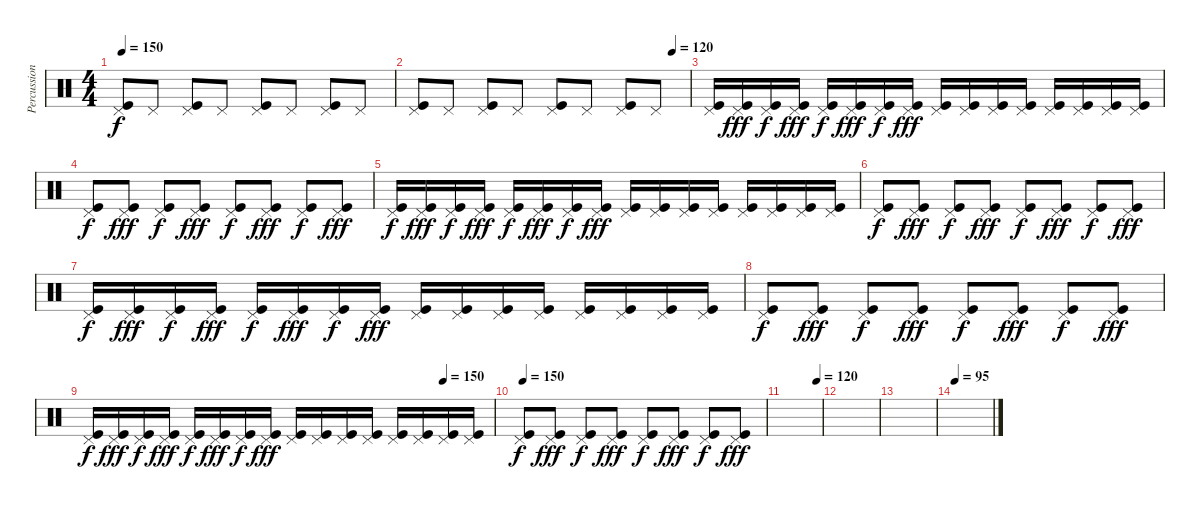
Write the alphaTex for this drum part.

\track ("Percussion" "Percussion") {instrument percussion}
\staff {score}
\articulation defaults
\ts (4 4)
\tempo 150
\clef neutral
\ks c
("Pedal Hi-Hat (hit)" "Kick (hit)").8{dy f} "Pedal Hi-Hat (hit)".8 ("Pedal Hi-Hat (hit)" "Kick (hit)").8 "Pedal Hi-Hat (hit)".8 ("Pedal Hi-Hat (hit)" "Kick (hit)").8 "Pedal Hi-Hat (hit)".8 ("Pedal Hi-Hat (hit)" "Kick (hit)").8 "Pedal Hi-Hat (hit)".8 |
\tempo (120 0.9375)
("Pedal Hi-Hat (hit)" "Kick (hit)").8 "Pedal Hi-Hat (hit)".8 ("Pedal Hi-Hat (hit)" "Kick (hit)").8 "Pedal Hi-Hat (hit)".8 ("Pedal Hi-Hat (hit)" "Kick (hit)").8 "Pedal Hi-Hat (hit)".8 ("Pedal Hi-Hat (hit)" "Kick (hit)").8 "Pedal Hi-Hat (hit)".8 |
("Pedal Hi-Hat (hit)" "Kick (hit)").16 ("Pedal Hi-Hat (hit)" "Kick (hit)").16{dy fff} ("Pedal Hi-Hat (hit)" "Kick (hit)").16{dy f} ("Pedal Hi-Hat (hit)" "Kick (hit)").16{dy fff} ("Pedal Hi-Hat (hit)" "Kick (hit)").16{dy f} ("Pedal Hi-Hat (hit)" "Kick (hit)").16{dy fff} ("Pedal Hi-Hat (hit)" "Kick (hit)").16{dy f} ("Pedal Hi-Hat (hit)" "Kick (hit)").16{dy fff} ("Pedal Hi-Hat (hit)" "Kick (hit)").16 ("Pedal Hi-Hat (hit)" "Kick (hit)").16 ("Pedal Hi-Hat (hit)" "Kick (hit)").16 ("Pedal Hi-Hat (hit)" "Kick (hit)").16 ("Pedal Hi-Hat (hit)" "Kick (hit)").16 ("Pedal Hi-Hat (hit)" "Kick (hit)").16 ("Pedal Hi-Hat (hit)" "Kick (hit)").16 ("Pedal Hi-Hat (hit)" "Kick (hit)").16 |
("Pedal Hi-Hat (hit)" "Kick (hit)").8{dy f} ("Pedal Hi-Hat (hit)" "Kick (hit)").8{dy fff} ("Pedal Hi-Hat (hit)" "Kick (hit)").8{dy f} ("Pedal Hi-Hat (hit)" "Kick (hit)").8{dy fff} ("Pedal Hi-Hat (hit)" "Kick (hit)").8{dy f} ("Pedal Hi-Hat (hit)" "Kick (hit)").8{dy fff} ("Pedal Hi-Hat (hit)" "Kick (hit)").8{dy f} ("Pedal Hi-Hat (hit)" "Kick (hit)").8{dy fff} |
("Pedal Hi-Hat (hit)" "Kick (hit)").16{dy f} ("Pedal Hi-Hat (hit)" "Kick (hit)").16{dy fff} ("Pedal Hi-Hat (hit)" "Kick (hit)").16{dy f} ("Pedal Hi-Hat (hit)" "Kick (hit)").16{dy fff} ("Pedal Hi-Hat (hit)" "Kick (hit)").16{dy f} ("Pedal Hi-Hat (hit)" "Kick (hit)").16{dy fff} ("Pedal Hi-Hat (hit)" "Kick (hit)").16{dy f} ("Pedal Hi-Hat (hit)" "Kick (hit)").16{dy fff} ("Pedal Hi-Hat (hit)" "Kick (hit)").16 ("Pedal Hi-Hat (hit)" "Kick (hit)").16 ("Pedal Hi-Hat (hit)" "Kick (hit)").16 ("Pedal Hi-Hat (hit)" "Kick (hit)").16 ("Pedal Hi-Hat (hit)" "Kick (hit)").16 ("Pedal Hi-Hat (hit)" "Kick (hit)").16 ("Pedal Hi-Hat (hit)" "Kick (hit)").16 ("Pedal Hi-Hat (hit)" "Kick (hit)").16 |
("Pedal Hi-Hat (hit)" "Kick (hit)").8{dy f} ("Pedal Hi-Hat (hit)" "Kick (hit)").8{dy fff} ("Pedal Hi-Hat (hit)" "Kick (hit)").8{dy f} ("Pedal Hi-Hat (hit)" "Kick (hit)").8{dy fff} ("Pedal Hi-Hat (hit)" "Kick (hit)").8{dy f} ("Pedal Hi-Hat (hit)" "Kick (hit)").8{dy fff} ("Pedal Hi-Hat (hit)" "Kick (hit)").8{dy f} ("Pedal Hi-Hat (hit)" "Kick (hit)").8{dy fff} |
("Pedal Hi-Hat (hit)" "Kick (hit)").16{dy f} ("Pedal Hi-Hat (hit)" "Kick (hit)").16{dy fff} ("Pedal Hi-Hat (hit)" "Kick (hit)").16{dy f} ("Pedal Hi-Hat (hit)" "Kick (hit)").16{dy fff} ("Pedal Hi-Hat (hit)" "Kick (hit)").16{dy f} ("Pedal Hi-Hat (hit)" "Kick (hit)").16{dy fff} ("Pedal Hi-Hat (hit)" "Kick (hit)").16{dy f} ("Pedal Hi-Hat (hit)" "Kick (hit)").16{dy fff} ("Pedal Hi-Hat (hit)" "Kick (hit)").16 ("Pedal Hi-Hat (hit)" "Kick (hit)").16 ("Pedal Hi-Hat (hit)" "Kick (hit)").16 ("Pedal Hi-Hat (hit)" "Kick (hit)").16 ("Pedal Hi-Hat (hit)" "Kick (hit)").16 ("Pedal Hi-Hat (hit)" "Kick (hit)").16 ("Pedal Hi-Hat (hit)" "Kick (hit)").16 ("Pedal Hi-Hat (hit)" "Kick (hit)").16 |
("Pedal Hi-Hat (hit)" "Kick (hit)").8{dy f} ("Pedal Hi-Hat (hit)" "Kick (hit)").8{dy fff} ("Pedal Hi-Hat (hit)" "Kick (hit)").8{dy f} ("Pedal Hi-Hat (hit)" "Kick (hit)").8{dy fff} ("Pedal Hi-Hat (hit)" "Kick (hit)").8{dy f} ("Pedal Hi-Hat (hit)" "Kick (hit)").8{dy fff} ("Pedal Hi-Hat (hit)" "Kick (hit)").8{dy f} ("Pedal Hi-Hat (hit)" "Kick (hit)").8{dy fff} |
\tempo (150 0.875)
("Pedal Hi-Hat (hit)" "Kick (hit)").16{dy f} ("Pedal Hi-Hat (hit)" "Kick (hit)").16{dy fff} ("Pedal Hi-Hat (hit)" "Kick (hit)").16{dy f} ("Pedal Hi-Hat (hit)" "Kick (hit)").16{dy fff} ("Pedal Hi-Hat (hit)" "Kick (hit)").16{dy f} ("Pedal Hi-Hat (hit)" "Kick (hit)").16{dy fff} ("Pedal Hi-Hat (hit)" "Kick (hit)").16{dy f} ("Pedal Hi-Hat (hit)" "Kick (hit)").16{dy fff} ("Pedal Hi-Hat (hit)" "Kick (hit)").16 ("Pedal Hi-Hat (hit)" "Kick (hit)").16 ("Pedal Hi-Hat (hit)" "Kick (hit)").16 ("Pedal Hi-Hat (hit)" "Kick (hit)").16 ("Pedal Hi-Hat (hit)" "Kick (hit)").16 ("Pedal Hi-Hat (hit)" "Kick (hit)").16 ("Pedal Hi-Hat (hit)" "Kick (hit)").16 ("Pedal Hi-Hat (hit)" "Kick (hit)").16 |
\tempo 150
("Pedal Hi-Hat (hit)" "Kick (hit)").8{dy f} ("Pedal Hi-Hat (hit)" "Kick (hit)").8{dy fff} ("Pedal Hi-Hat (hit)" "Kick (hit)").8{dy f} ("Pedal Hi-Hat (hit)" "Kick (hit)").8{dy fff} ("Pedal Hi-Hat (hit)" "Kick (hit)").8{dy f} ("Pedal Hi-Hat (hit)" "Kick (hit)").8{dy fff} ("Pedal Hi-Hat (hit)" "Kick (hit)").8{dy f} ("Pedal Hi-Hat (hit)" "Kick (hit)").8{dy fff} |
\tempo (120 0.875)
|
|
|
\tempo 95
